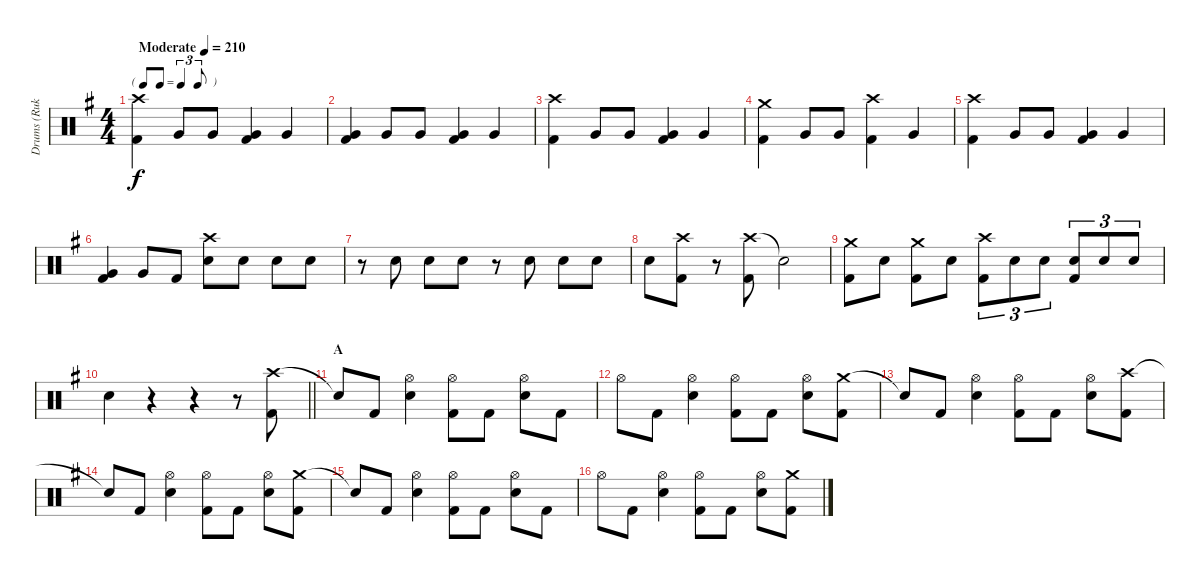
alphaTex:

\track ("Drums (Ruka)" "Drums (Ruk") {instrument percussion}
\staff {score}
\articulation defaults
\ts (4 4)
\tf triplet8th
\tempo (210 "Moderate")
\clef neutral
\ks g
("Crash high (hit)" "Kick (hit) 2").4{dy f} "Very Low Tom (hit)".8 "Very Low Tom (hit)".8 ("Very Low Tom (hit)" "Kick (hit) 2").4 "Very Low Tom (hit)".4 |
("Very Low Tom (hit)" "Kick (hit) 2").4 "Very Low Tom (hit)".8 "Very Low Tom (hit)".8 ("Very Low Tom (hit)" "Kick (hit) 2").4 "Very Low Tom (hit)".4 |
("Crash high (hit)" "Kick (hit) 2").4 "Very Low Tom (hit)".8 "Very Low Tom (hit)".8 ("Very Low Tom (hit)" "Kick (hit) 2").4 "Very Low Tom (hit)".4 |
("Crash medium (hit)" "Kick (hit) 2").4 "Very Low Tom (hit)".8 "Very Low Tom (hit)".8 ("Crash high (hit)" "Kick (hit) 2").4 "Very Low Tom (hit)".4 |
("Crash high (hit)" "Kick (hit) 2").4 "Very Low Tom (hit)".8 "Very Low Tom (hit)".8 ("Very Low Tom (hit)" "Kick (hit) 2").4 "Very Low Tom (hit)".4 |
("Very Low Tom (hit)" "Kick (hit) 2").4 "Very Low Tom (hit)".8 "Kick (hit) 2".8 ("Crash high (hit)" "Electric Snare (hit)").8 "Electric Snare (hit)".8 "Electric Snare (hit)".8 "Electric Snare (hit)".8 |
r.8 "Electric Snare (hit)".8 "Electric Snare (hit)".8 "Electric Snare (hit)".8 r.8 "Electric Snare (hit)".8 "Electric Snare (hit)".8 "Electric Snare (hit)".8 |
"Electric Snare (hit)".8 ("Crash high (hit)" "Kick (hit) 2").8 r.8 ("Crash high (hit)" "Kick (hit) 2").8 "Snare (hit)"{t}.2 |
("Crash medium (hit)" "Kick (hit) 2").8 "Electric Snare (hit)".8 ("Crash medium (hit)" "Kick (hit) 2").8 "Electric Snare (hit)".8 ("Crash high (hit)" "Kick (hit) 2").8{tu (3 2)} "Electric Snare (hit)".8{tu (3 2)} "Electric Snare (hit)".8{tu (3 2)} ("Electric Snare (hit)" "Kick (hit) 2").8{tu (3 2)} "Electric Snare (hit)".8{tu (3 2)} "Electric Snare (hit)".8{tu (3 2)} |
\barLineRight lightlight "Electric Snare (hit)".4
r.4 r.4 r.8 ("Crash high (hit)" "Kick (hit) 2").8 |
\section ("" "A")
"Snare (hit)"{t}.8 "Kick (hit) 2".8 ("Hi-Hat (open)" "Electric Snare (hit)").4 ("Hi-Hat (open)" "Kick (hit) 2").8 "Kick (hit) 2".8 ("Hi-Hat (open)" "Electric Snare (hit)").8 "Kick (hit) 2".8 |
"Hi-Hat (open)".8 "Kick (hit) 2".8 ("Hi-Hat (open)" "Electric Snare (hit)").4 ("Hi-Hat (open)" "Kick (hit) 2").8 "Kick (hit) 2".8 ("Hi-Hat (open)" "Electric Snare (hit)").8 ("Crash medium (hit)" "Kick (hit) 2").8 |
"Snare (hit)"{t}.8 "Kick (hit) 2".8 ("Hi-Hat (open)" "Electric Snare (hit)").4 ("Hi-Hat (open)" "Kick (hit) 2").8 "Kick (hit) 2".8 ("Hi-Hat (open)" "Electric Snare (hit)").8 ("Crash high (hit)" "Kick (hit) 2").8 |
"Snare (hit)"{t}.8 "Kick (hit) 2".8 ("Hi-Hat (open)" "Electric Snare (hit)").4 ("Hi-Hat (open)" "Kick (hit) 2").8 "Kick (hit) 2".8 ("Hi-Hat (open)" "Electric Snare (hit)").8 ("Crash medium (hit)" "Kick (hit) 2").8 |
"Snare (hit)"{t}.8 "Kick (hit) 2".8 ("Hi-Hat (open)" "Electric Snare (hit)").4 ("Hi-Hat (open)" "Kick (hit) 2").8 "Kick (hit) 2".8 ("Hi-Hat (open)" "Electric Snare (hit)").8 "Kick (hit) 2".8 |
"Hi-Hat (open)".8 "Kick (hit) 2".8 ("Hi-Hat (open)" "Electric Snare (hit)").4 ("Hi-Hat (open)" "Kick (hit) 2").8 "Kick (hit) 2".8 ("Hi-Hat (open)" "Electric Snare (hit)").8 ("Crash medium (hit)" "Kick (hit) 2").8
